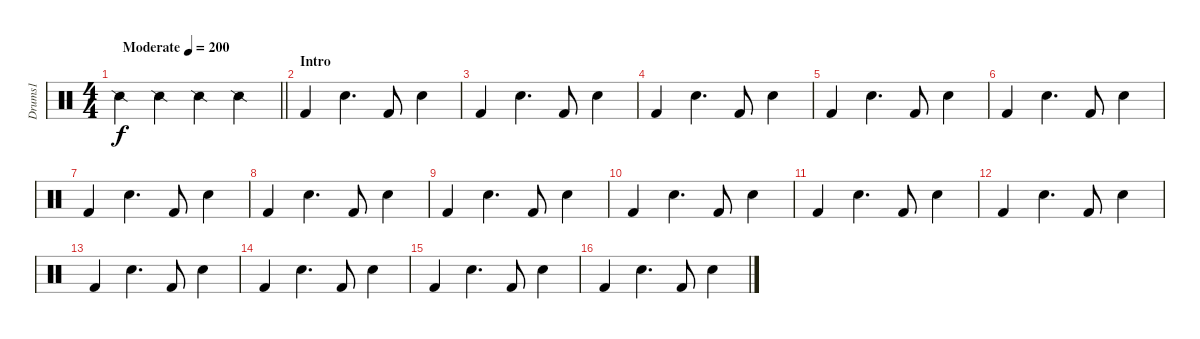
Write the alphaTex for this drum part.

\track ("Drums1" "Drums1") {instrument percussion}
\staff {score}
\articulation defaults
\ts (4 4)
\tempo (200 "Moderate")
\clef neutral
\barLineRight lightlight
\ks c "Snare (side stick) 2".4{dy f} "Snare (side stick) 2".4 "Snare (side stick) 2".4 "Snare (side stick) 2".4
|
\section ("" "Intro")
"Kick (hit) 2".4 "Snare (hit) 2".4{d} "Kick (hit) 2".8 "Snare (hit) 2".4 |
"Kick (hit) 2".4 "Snare (hit) 2".4{d} "Kick (hit) 2".8 "Snare (hit) 2".4 |
"Kick (hit) 2".4 "Snare (hit) 2".4{d} "Kick (hit) 2".8 "Snare (hit) 2".4 |
"Kick (hit) 2".4 "Snare (hit) 2".4{d} "Kick (hit) 2".8 "Snare (hit) 2".4 |
"Kick (hit) 2".4 "Snare (hit) 2".4{d} "Kick (hit) 2".8 "Snare (hit) 2".4 |
"Kick (hit) 2".4 "Snare (hit) 2".4{d} "Kick (hit) 2".8 "Snare (hit) 2".4 |
"Kick (hit) 2".4 "Snare (hit) 2".4{d} "Kick (hit) 2".8 "Snare (hit) 2".4 |
"Kick (hit) 2".4 "Snare (hit) 2".4{d} "Kick (hit) 2".8 "Snare (hit) 2".4 |
"Kick (hit) 2".4 "Snare (hit) 2".4{d} "Kick (hit) 2".8 "Snare (hit) 2".4 |
"Kick (hit) 2".4 "Snare (hit) 2".4{d} "Kick (hit) 2".8 "Snare (hit) 2".4 |
"Kick (hit) 2".4 "Snare (hit) 2".4{d} "Kick (hit) 2".8 "Snare (hit) 2".4 |
"Kick (hit) 2".4 "Snare (hit) 2".4{d} "Kick (hit) 2".8 "Snare (hit) 2".4 |
"Kick (hit) 2".4 "Snare (hit) 2".4{d} "Kick (hit) 2".8 "Snare (hit) 2".4 |
"Kick (hit) 2".4 "Snare (hit) 2".4{d} "Kick (hit) 2".8 "Snare (hit) 2".4 |
"Kick (hit) 2".4 "Snare (hit) 2".4{d} "Kick (hit) 2".8 "Snare (hit) 2".4
